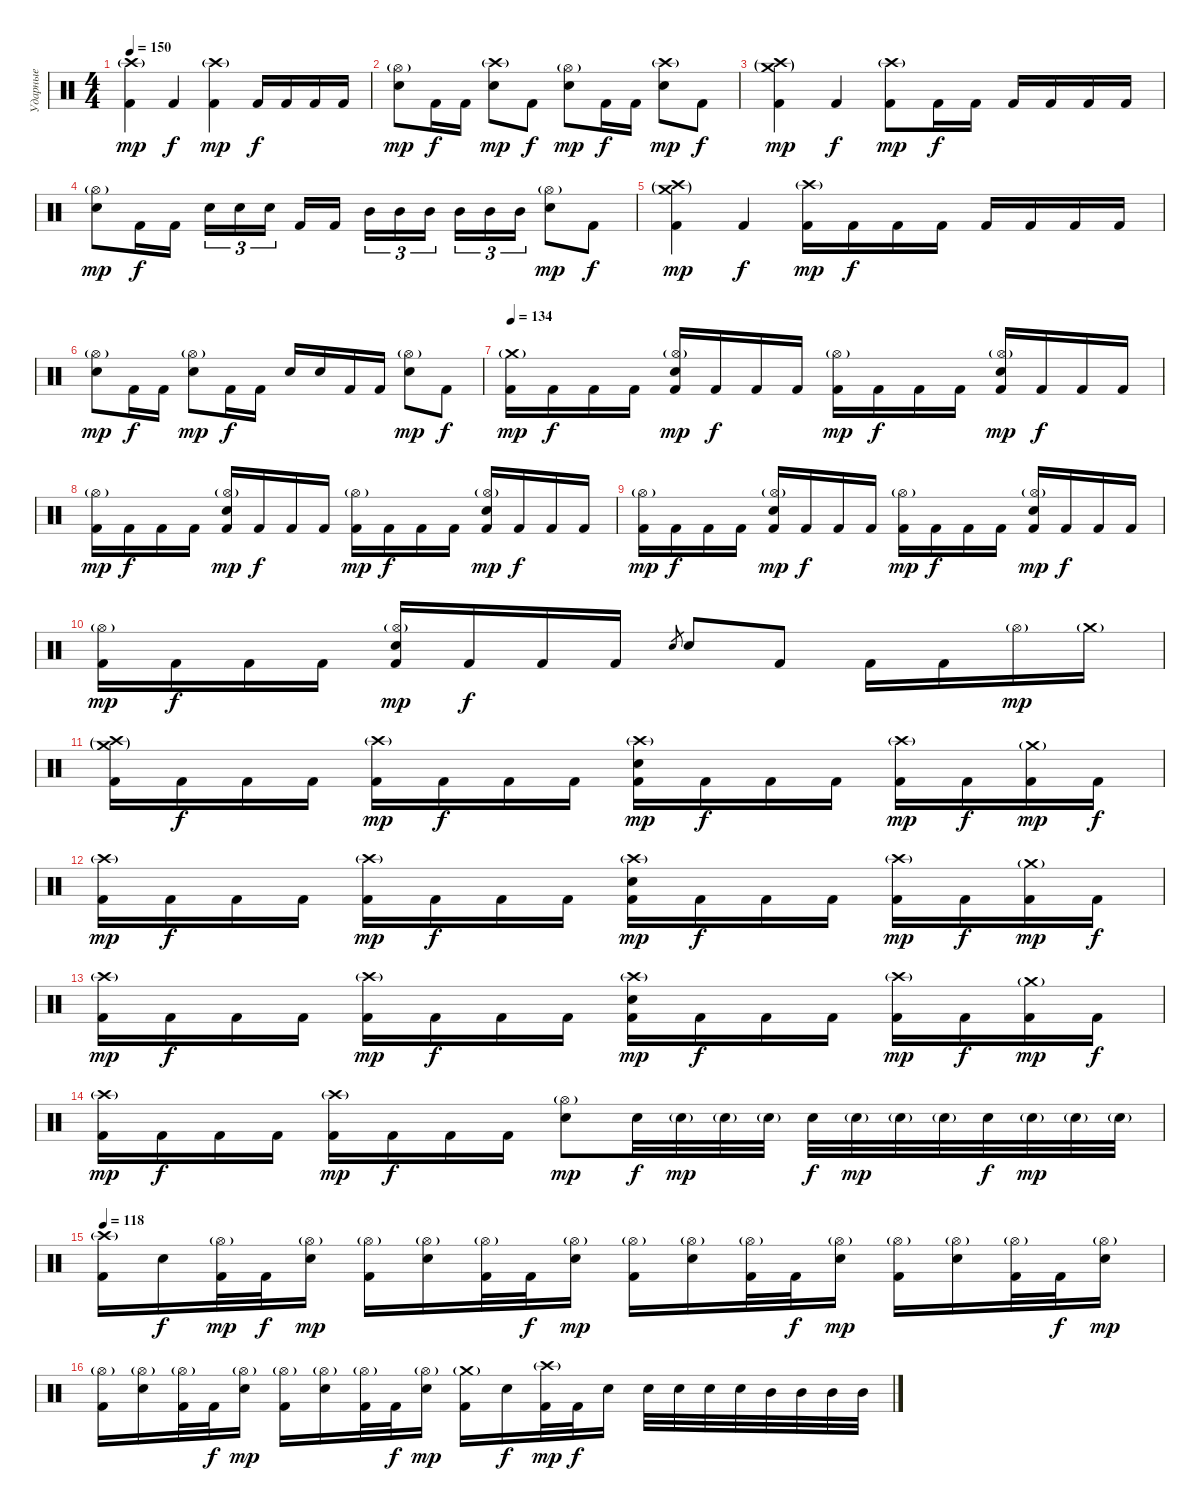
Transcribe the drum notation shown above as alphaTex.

\track ("Ударные" "Ударные") {instrument percussion}
\staff {score}
\articulation defaults
\ts (4 4)
\tempo 150
\clef neutral
\ks c
("Crash high (hit)"{g} "Kick (hit) 2").4{dy mp} "Kick (hit) 2".4{dy f} ("Crash high (hit)"{g} "Kick (hit) 2").4{dy mp} "Kick (hit) 2".16{dy f} "Kick (hit) 2".16 "Kick (hit) 2".16 "Kick (hit) 2".16 |
("Hi-Hat (open)"{g} "Electric Snare (hit)").8{dy mp} "Kick (hit) 2".16{dy f} "Kick (hit) 2".16 ("Crash high (hit)"{g} "Electric Snare (hit)").8{dy mp} "Kick (hit) 2".8{dy f} ("Hi-Hat (open)"{g} "Electric Snare (hit)").8{dy mp} "Kick (hit) 2".16{dy f} "Kick (hit) 2".16 ("Crash high (hit)"{g} "Electric Snare (hit)").8{dy mp} "Kick (hit) 2".8{dy f} |
("Crash high (hit)"{g} "Crash medium (hit)"{g} "Kick (hit) 2").4{dy mp} "Kick (hit) 2".4{dy f} ("Crash high (hit)"{g} "Kick (hit) 2").8{dy mp} "Kick (hit) 2".16{dy f} "Kick (hit) 2".16 "Kick (hit) 2".16 "Kick (hit) 2".16 "Kick (hit) 2".16 "Kick (hit) 2".16 |
("Hi-Hat (open)"{g} "Electric Snare (hit)").8{dy mp} "Kick (hit) 2".16{dy f} "Kick (hit) 2".16 "Electric Snare (hit)".16{tu (3 2)} "Electric Snare (hit)".16{tu (3 2)} "Electric Snare (hit)".16{tu (3 2)} "Kick (hit) 2".16 "Kick (hit) 2".16 "Mid Tom (hit)".16{tu (3 2)} "Mid Tom (hit)".16{tu (3 2)} "Mid Tom (hit)".16{tu (3 2)} "Mid Tom (hit)".16{tu (3 2)} "Mid Tom (hit)".16{tu (3 2)} "Mid Tom (hit)".16{tu (3 2)} ("Hi-Hat (open)"{g} "Electric Snare (hit)").8{dy mp} "Kick (hit) 2".8{dy f} |
("Crash high (hit)"{g} "Crash medium (hit)"{g} "Kick (hit) 2").4{dy mp} "Kick (hit) 2".4{dy f} ("Crash high (hit)"{g} "Kick (hit) 2").16{dy mp} "Kick (hit) 2".16{dy f} "Kick (hit) 2".16 "Kick (hit) 2".16 "Kick (hit) 2".16 "Kick (hit) 2".16 "Kick (hit) 2".16 "Kick (hit) 2".16 |
("Hi-Hat (open)"{g} "Electric Snare (hit)").8{dy mp} "Kick (hit) 2".16{dy f} "Kick (hit) 2".16 ("Hi-Hat (open)"{g} "Electric Snare (hit)").8{dy mp} "Kick (hit) 2".16{dy f} "Kick (hit) 2".16 "Electric Snare (hit)".16 "Electric Snare (hit)".16 "Kick (hit) 2".16 "Kick (hit) 2".16 ("Hi-Hat (open)"{g} "Electric Snare (hit)").8{dy mp} "Kick (hit) 2".8{dy f} |
\tempo 134
("Crash medium (hit)"{g} "Kick (hit) 2").16{dy mp} "Kick (hit) 2".16{dy f} "Kick (hit) 2".16 "Kick (hit) 2".16 ("Hi-Hat (open)"{g} "Electric Snare (hit)" "Kick (hit) 2").16{dy mp} "Kick (hit) 2".16{dy f} "Kick (hit) 2".16 "Kick (hit) 2".16 ("Hi-Hat (open)"{g} "Kick (hit) 2").16{dy mp} "Kick (hit) 2".16{dy f} "Kick (hit) 2".16 "Kick (hit) 2".16 ("Hi-Hat (open)"{g} "Electric Snare (hit)" "Kick (hit) 2").16{dy mp} "Kick (hit) 2".16{dy f} "Kick (hit) 2".16 "Kick (hit) 2".16 |
("Hi-Hat (open)"{g} "Kick (hit) 2").16{dy mp} "Kick (hit) 2".16{dy f} "Kick (hit) 2".16 "Kick (hit) 2".16 ("Hi-Hat (open)"{g} "Electric Snare (hit)" "Kick (hit) 2").16{dy mp} "Kick (hit) 2".16{dy f} "Kick (hit) 2".16 "Kick (hit) 2".16 ("Hi-Hat (open)"{g} "Kick (hit) 2").16{dy mp} "Kick (hit) 2".16{dy f} "Kick (hit) 2".16 "Kick (hit) 2".16 ("Hi-Hat (open)"{g} "Electric Snare (hit)" "Kick (hit) 2").16{dy mp} "Kick (hit) 2".16{dy f} "Kick (hit) 2".16 "Kick (hit) 2".16 |
("Hi-Hat (open)"{g} "Kick (hit) 2").16{dy mp} "Kick (hit) 2".16{dy f} "Kick (hit) 2".16 "Kick (hit) 2".16 ("Hi-Hat (open)"{g} "Electric Snare (hit)" "Kick (hit) 2").16{dy mp} "Kick (hit) 2".16{dy f} "Kick (hit) 2".16 "Kick (hit) 2".16 ("Hi-Hat (open)"{g} "Kick (hit) 2").16{dy mp} "Kick (hit) 2".16{dy f} "Kick (hit) 2".16 "Kick (hit) 2".16 ("Hi-Hat (open)"{g} "Electric Snare (hit)" "Kick (hit) 2").16{dy mp} "Kick (hit) 2".16{dy f} "Kick (hit) 2".16 "Kick (hit) 2".16 |
("Hi-Hat (open)"{g} "Kick (hit) 2").16{dy mp} "Kick (hit) 2".16{dy f} "Kick (hit) 2".16 "Kick (hit) 2".16 ("Hi-Hat (open)"{g} "Electric Snare (hit)" "Kick (hit) 2").16{dy mp} "Kick (hit) 2".16{dy f} "Kick (hit) 2".16 "Kick (hit) 2".16 "Electric Snare (hit)".8{gr} "Electric Snare (hit)".8 "Kick (hit) 2".8 "Kick (hit) 2".16 "Kick (hit) 2".16 "Hi-Hat (open)"{g}.16{dy mp} "Crash medium (hit)"{g}.16 |
("Crash medium (hit)"{g} "Crash high (hit)"{g} "Kick (hit) 2").16 "Kick (hit) 2".16{dy f} "Kick (hit) 2".16 "Kick (hit) 2".16 ("Crash high (hit)"{g} "Kick (hit) 2").16{dy mp} "Kick (hit) 2".16{dy f} "Kick (hit) 2".16 "Kick (hit) 2".16 ("Crash high (hit)"{g} "Electric Snare (hit)" "Kick (hit) 2").16{dy mp} "Kick (hit) 2".16{dy f} "Kick (hit) 2".16 "Kick (hit) 2".16 ("Crash high (hit)"{g} "Kick (hit) 2").16{dy mp} "Kick (hit) 2".16{dy f} ("Crash medium (hit)"{g} "Kick (hit) 2").16{dy mp} "Kick (hit) 2".16{dy f} |
("Crash high (hit)"{g} "Kick (hit) 2").16{dy mp} "Kick (hit) 2".16{dy f} "Kick (hit) 2".16 "Kick (hit) 2".16 ("Crash high (hit)"{g} "Kick (hit) 2").16{dy mp} "Kick (hit) 2".16{dy f} "Kick (hit) 2".16 "Kick (hit) 2".16 ("Crash high (hit)"{g} "Electric Snare (hit)" "Kick (hit) 2").16{dy mp} "Kick (hit) 2".16{dy f} "Kick (hit) 2".16 "Kick (hit) 2".16 ("Crash high (hit)"{g} "Kick (hit) 2").16{dy mp} "Kick (hit) 2".16{dy f} ("Crash medium (hit)"{g} "Kick (hit) 2").16{dy mp} "Kick (hit) 2".16{dy f} |
("Crash high (hit)"{g} "Kick (hit) 2").16{dy mp} "Kick (hit) 2".16{dy f} "Kick (hit) 2".16 "Kick (hit) 2".16 ("Crash high (hit)"{g} "Kick (hit) 2").16{dy mp} "Kick (hit) 2".16{dy f} "Kick (hit) 2".16 "Kick (hit) 2".16 ("Crash high (hit)"{g} "Electric Snare (hit)" "Kick (hit) 2").16{dy mp} "Kick (hit) 2".16{dy f} "Kick (hit) 2".16 "Kick (hit) 2".16 ("Crash high (hit)"{g} "Kick (hit) 2").16{dy mp} "Kick (hit) 2".16{dy f} ("Crash medium (hit)"{g} "Kick (hit) 2").16{dy mp} "Kick (hit) 2".16{dy f} |
("Crash high (hit)"{g} "Kick (hit) 2").16{dy mp} "Kick (hit) 2".16{dy f} "Kick (hit) 2".16 "Kick (hit) 2".16 ("Crash high (hit)"{g} "Kick (hit) 2").16{dy mp} "Kick (hit) 2".16{dy f} "Kick (hit) 2".16 "Kick (hit) 2".16 ("Hi-Hat (open)"{g} "Electric Snare (hit)").8{dy mp} "Electric Snare (hit)".32{dy f} "Electric Snare (hit)"{g}.32{dy mp} "Electric Snare (hit)"{g}.32 "Electric Snare (hit)"{g}.32 "Electric Snare (hit)".32{dy f} "Electric Snare (hit)"{g}.32{dy mp} "Electric Snare (hit)"{g}.32 "Electric Snare (hit)"{g}.32 "Electric Snare (hit)".32{dy f} "Electric Snare (hit)"{g}.32{dy mp} "Electric Snare (hit)"{g}.32 "Electric Snare (hit)"{g}.32 |
\tempo 118
("Crash high (hit)"{g} "Kick (hit) 2").16 "Electric Snare (hit)".16{dy f} ("Hi-Hat (open)"{g} "Kick (hit) 2").32{dy mp} "Kick (hit) 2".32{dy f} ("Hi-Hat (open)"{g} "Electric Snare (hit)").16{dy mp} ("Hi-Hat (open)"{g} "Kick (hit) 2").16 ("Hi-Hat (open)"{g} "Electric Snare (hit)").16 ("Hi-Hat (open)"{g} "Kick (hit) 2").32 "Kick (hit) 2".32{dy f} ("Hi-Hat (open)"{g} "Electric Snare (hit)").16{dy mp} ("Hi-Hat (open)"{g} "Kick (hit) 2").16 ("Hi-Hat (open)"{g} "Electric Snare (hit)").16 ("Hi-Hat (open)"{g} "Kick (hit) 2").32 "Kick (hit) 2".32{dy f} ("Hi-Hat (open)"{g} "Electric Snare (hit)").16{dy mp} ("Hi-Hat (open)"{g} "Kick (hit) 2").16 ("Hi-Hat (open)"{g} "Electric Snare (hit)").16 ("Hi-Hat (open)"{g} "Kick (hit) 2").32 "Kick (hit) 2".32{dy f} ("Hi-Hat (open)"{g} "Electric Snare (hit)").16{dy mp} |
("Hi-Hat (open)"{g} "Kick (hit) 2").16 ("Hi-Hat (open)"{g} "Electric Snare (hit)").16 ("Hi-Hat (open)"{g} "Kick (hit) 2").32 "Kick (hit) 2".32{dy f} ("Hi-Hat (open)"{g} "Electric Snare (hit)").16{dy mp} ("Hi-Hat (open)"{g} "Kick (hit) 2").16 ("Hi-Hat (open)"{g} "Electric Snare (hit)").16 ("Hi-Hat (open)"{g} "Kick (hit) 2").32 "Kick (hit) 2".32{dy f} ("Hi-Hat (open)"{g} "Electric Snare (hit)").16{dy mp} ("Crash medium (hit)"{g} "Kick (hit) 2").16 "Electric Snare (hit)".16{dy f} ("Crash high (hit)"{g} "Kick (hit) 2").32{dy mp} "Kick (hit) 2".32{dy f} "Electric Snare (hit)".16 "Electric Snare (hit)".32 "Electric Snare (hit)".32 "Electric Snare (hit)".32 "Electric Snare (hit)".32 "Mid Tom (hit)".32 "Mid Tom (hit)".32 "Mid Tom (hit)".32 "Mid Tom (hit)".32
